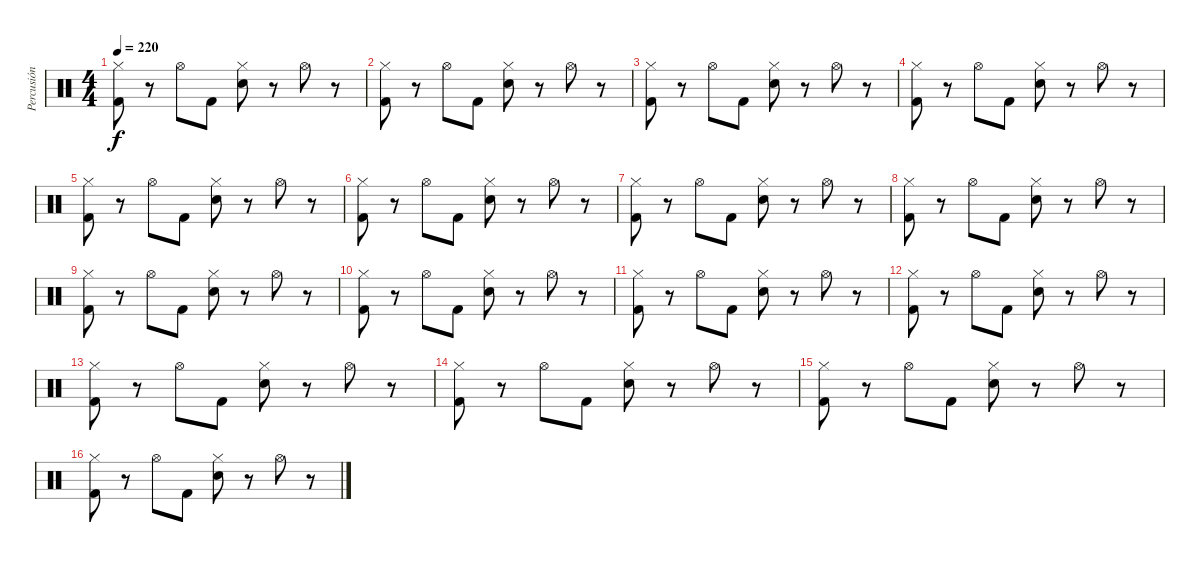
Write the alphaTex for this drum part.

\track ("Percusión" "Percusión") {instrument percussion}
\staff {score}
\articulation defaults
\ts (4 4)
\tempo 220
\clef neutral
\ks c
("Hi-Hat (closed)" "Kick (hit) 2").8{dy f} r.8 "Hi-Hat (open)".8 "Kick (hit) 2".8 ("Hi-Hat (closed)" "Snare (hit) 2").8 r.8 "Hi-Hat (open)".8 r.8 |
("Hi-Hat (closed)" "Kick (hit) 2").8 r.8 "Hi-Hat (open)".8 "Kick (hit) 2".8 ("Hi-Hat (closed)" "Snare (hit) 2").8 r.8 "Hi-Hat (open)".8 r.8 |
("Hi-Hat (closed)" "Kick (hit) 2").8 r.8 "Hi-Hat (open)".8 "Kick (hit) 2".8 ("Hi-Hat (closed)" "Snare (hit) 2").8 r.8 "Hi-Hat (open)".8 r.8 |
("Hi-Hat (closed)" "Kick (hit) 2").8 r.8 "Hi-Hat (open)".8 "Kick (hit) 2".8 ("Hi-Hat (closed)" "Snare (hit) 2").8 r.8 "Hi-Hat (open)".8 r.8 |
("Hi-Hat (closed)" "Kick (hit) 2").8 r.8 "Hi-Hat (open)".8 "Kick (hit) 2".8 ("Hi-Hat (closed)" "Snare (hit) 2").8 r.8 "Hi-Hat (open)".8 r.8 |
("Hi-Hat (closed)" "Kick (hit) 2").8 r.8 "Hi-Hat (open)".8 "Kick (hit) 2".8 ("Hi-Hat (closed)" "Snare (hit) 2").8 r.8 "Hi-Hat (open)".8 r.8 |
("Hi-Hat (closed)" "Kick (hit) 2").8 r.8 "Hi-Hat (open)".8 "Kick (hit) 2".8 ("Hi-Hat (closed)" "Snare (hit) 2").8 r.8 "Hi-Hat (open)".8 r.8 |
("Hi-Hat (closed)" "Kick (hit) 2").8 r.8 "Hi-Hat (open)".8 "Kick (hit) 2".8 ("Hi-Hat (closed)" "Snare (hit) 2").8 r.8 "Hi-Hat (open)".8 r.8 |
("Hi-Hat (closed)" "Kick (hit) 2").8 r.8 "Hi-Hat (open)".8 "Kick (hit) 2".8 ("Hi-Hat (closed)" "Snare (hit) 2").8 r.8 "Hi-Hat (open)".8 r.8 |
("Hi-Hat (closed)" "Kick (hit) 2").8 r.8 "Hi-Hat (open)".8 "Kick (hit) 2".8 ("Hi-Hat (closed)" "Snare (hit) 2").8 r.8 "Hi-Hat (open)".8 r.8 |
("Hi-Hat (closed)" "Kick (hit) 2").8 r.8 "Hi-Hat (open)".8 "Kick (hit) 2".8 ("Hi-Hat (closed)" "Snare (hit) 2").8 r.8 "Hi-Hat (open)".8 r.8 |
("Hi-Hat (closed)" "Kick (hit) 2").8 r.8 "Hi-Hat (open)".8 "Kick (hit) 2".8 ("Hi-Hat (closed)" "Snare (hit) 2").8 r.8 "Hi-Hat (open)".8 r.8 |
("Hi-Hat (closed)" "Kick (hit) 2").8 r.8 "Hi-Hat (open)".8 "Kick (hit) 2".8 ("Hi-Hat (closed)" "Snare (hit) 2").8 r.8 "Hi-Hat (open)".8 r.8 |
("Hi-Hat (closed)" "Kick (hit) 2").8 r.8 "Hi-Hat (open)".8 "Kick (hit) 2".8 ("Hi-Hat (closed)" "Snare (hit) 2").8 r.8 "Hi-Hat (open)".8 r.8 |
("Hi-Hat (closed)" "Kick (hit) 2").8 r.8 "Hi-Hat (open)".8 "Kick (hit) 2".8 ("Hi-Hat (closed)" "Snare (hit) 2").8 r.8 "Hi-Hat (open)".8 r.8 |
("Hi-Hat (closed)" "Kick (hit) 2").8 r.8 "Hi-Hat (open)".8 "Kick (hit) 2".8 ("Hi-Hat (closed)" "Snare (hit) 2").8 r.8 "Hi-Hat (open)".8 r.8
